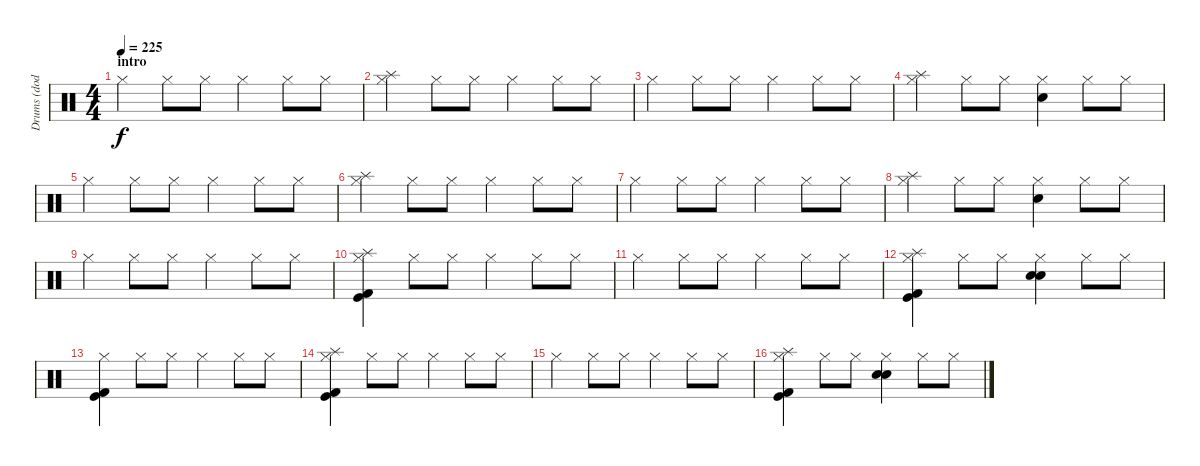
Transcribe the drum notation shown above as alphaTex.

\track ("Drums (dodo)" "Drums (dod") {instrument percussion}
\staff {score}
\articulation defaults
\ts (4 4)
\section ("" "intro")
\tempo 225
\clef neutral
\ks c "Hi-Hat (closed)".4{dy f} "Hi-Hat (closed)".8 "Hi-Hat (closed)".8 "Hi-Hat (closed)".4 "Hi-Hat (closed)".8 "Hi-Hat (closed)".8
|
("Hi-Hat (closed)" "Splash (hit)").4 "Hi-Hat (closed)".8 "Hi-Hat (closed)".8 "Hi-Hat (closed)".4 "Hi-Hat (closed)".8 "Hi-Hat (closed)".8 |
"Hi-Hat (closed)".4 "Hi-Hat (closed)".8 "Hi-Hat (closed)".8 "Hi-Hat (closed)".4 "Hi-Hat (closed)".8 "Hi-Hat (closed)".8 |
("Hi-Hat (closed)" "Splash (hit)").4 "Hi-Hat (closed)".8 "Hi-Hat (closed)".8 ("Hi-Hat (closed)" "Electric Snare (hit)").4 "Hi-Hat (closed)".8 "Hi-Hat (closed)".8 |
"Hi-Hat (closed)".4 "Hi-Hat (closed)".8 "Hi-Hat (closed)".8 "Hi-Hat (closed)".4 "Hi-Hat (closed)".8 "Hi-Hat (closed)".8 |
("Hi-Hat (closed)" "Splash (hit)").4 "Hi-Hat (closed)".8 "Hi-Hat (closed)".8 "Hi-Hat (closed)".4 "Hi-Hat (closed)".8 "Hi-Hat (closed)".8 |
"Hi-Hat (closed)".4 "Hi-Hat (closed)".8 "Hi-Hat (closed)".8 "Hi-Hat (closed)".4 "Hi-Hat (closed)".8 "Hi-Hat (closed)".8 |
("Hi-Hat (closed)" "Splash (hit)").4 "Hi-Hat (closed)".8 "Hi-Hat (closed)".8 ("Hi-Hat (closed)" "Electric Snare (hit)").4 "Hi-Hat (closed)".8 "Hi-Hat (closed)".8 |
"Hi-Hat (closed)".4 "Hi-Hat (closed)".8 "Hi-Hat (closed)".8 "Hi-Hat (closed)".4 "Hi-Hat (closed)".8 "Hi-Hat (closed)".8 |
("Hi-Hat (closed)" "Splash (hit)" "Kick (hit)" "Kick (hit) 2").4 "Hi-Hat (closed)".8 "Hi-Hat (closed)".8 "Hi-Hat (closed)".4 "Hi-Hat (closed)".8 "Hi-Hat (closed)".8 |
"Hi-Hat (closed)".4 "Hi-Hat (closed)".8 "Hi-Hat (closed)".8 "Hi-Hat (closed)".4 "Hi-Hat (closed)".8 "Hi-Hat (closed)".8 |
("Hi-Hat (closed)" "Splash (hit)" "Kick (hit)" "Kick (hit) 2").4 "Hi-Hat (closed)".8 "Hi-Hat (closed)".8 ("Hi-Hat (closed)" "Electric Snare (hit)" "Snare (hit) 2").4 "Hi-Hat (closed)".8 "Hi-Hat (closed)".8 |
("Hi-Hat (closed)" "Kick (hit)" "Kick (hit) 2").4 "Hi-Hat (closed)".8 "Hi-Hat (closed)".8 "Hi-Hat (closed)".4 "Hi-Hat (closed)".8 "Hi-Hat (closed)".8 |
("Hi-Hat (closed)" "Splash (hit)" "Kick (hit)" "Kick (hit) 2").4 "Hi-Hat (closed)".8 "Hi-Hat (closed)".8 "Hi-Hat (closed)".4 "Hi-Hat (closed)".8 "Hi-Hat (closed)".8 |
"Hi-Hat (closed)".4 "Hi-Hat (closed)".8 "Hi-Hat (closed)".8 "Hi-Hat (closed)".4 "Hi-Hat (closed)".8 "Hi-Hat (closed)".8 |
("Hi-Hat (closed)" "Splash (hit)" "Kick (hit)" "Kick (hit) 2").4 "Hi-Hat (closed)".8 "Hi-Hat (closed)".8 ("Hi-Hat (closed)" "Electric Snare (hit)" "Snare (hit) 2").4 "Hi-Hat (closed)".8 "Hi-Hat (closed)".8
